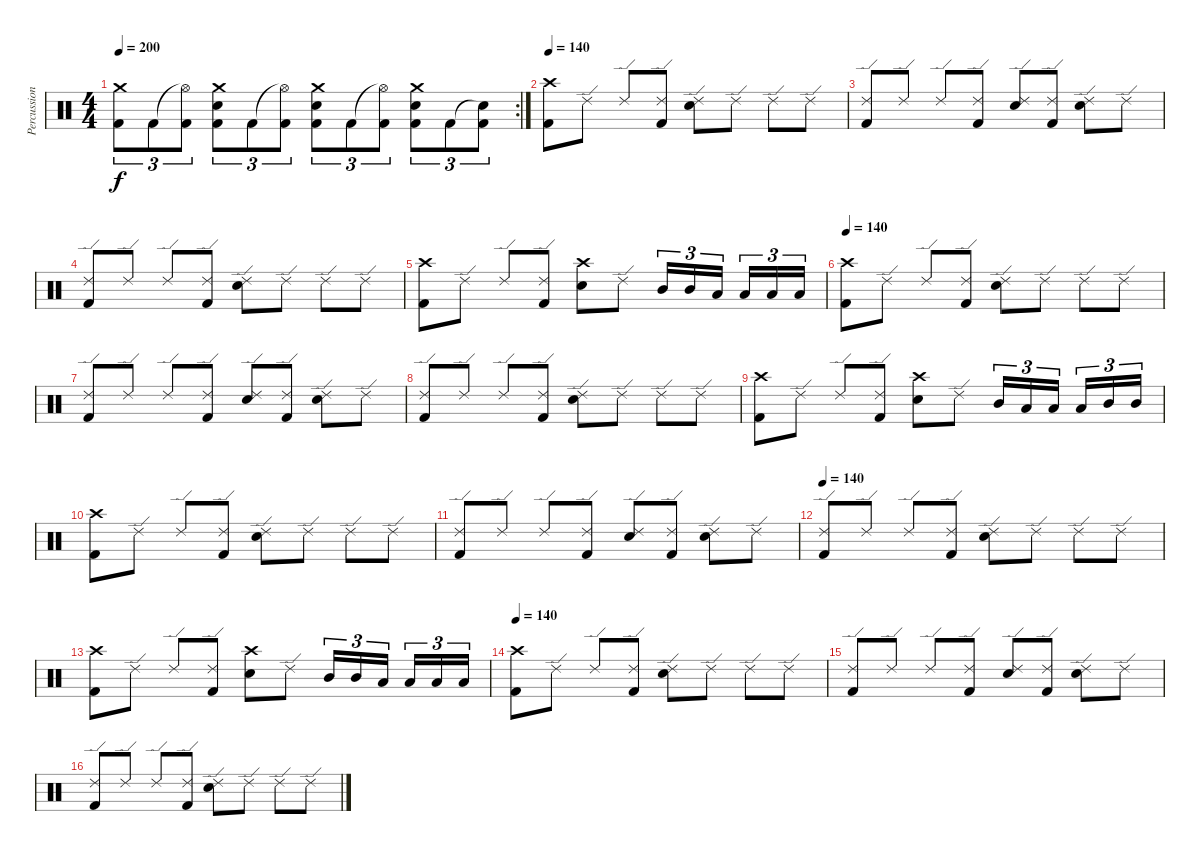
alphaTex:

\track ("Percussion" "Percussion") {instrument percussion}
\staff {score}
\articulation defaults
\rc 2
\ts (4 4)
\tempo 200
\clef neutral
\ks c
("Crash medium (hit)" "Kick (hit) 2").8{tu (3 2) dy f} "Kick (hit) 2".8{tu (3 2)} ("Hi-Hat (open)"{t} "Kick (hit) 2").8{tu (3 2)} ("Crash medium (hit)" "Electric Snare (hit)" "Kick (hit) 2").8{tu (3 2)} "Kick (hit) 2".8{tu (3 2)} ("Hi-Hat (open)"{t} "Kick (hit) 2").8{tu (3 2)} ("Crash medium (hit)" "Electric Snare (hit)" "Kick (hit) 2").8{tu (3 2)} "Kick (hit) 2".8{tu (3 2)} ("Hi-Hat (open)"{t} "Kick (hit) 2").8{tu (3 2)} ("Crash medium (hit)" "Electric Snare (hit)" "Kick (hit) 2").8{tu (3 2)} "Kick (hit) 2".8{tu (3 2)} ("Snare (hit)"{t} "Kick (hit) 2").8{tu (3 2)} |
\tempo 140
("Crash high (hit)" "Kick (hit) 2").8 "Ride (edge) 2".8 "Ride (edge) 2".8 ("Ride (edge) 2" "Kick (hit) 2").8 ("Ride (edge) 2" "Electric Snare (hit)").8 "Ride (edge) 2".8 "Ride (edge) 2".8 "Ride (edge) 2".8 |
("Ride (edge) 2" "Kick (hit) 2").8 "Ride (edge) 2".8 "Ride (edge) 2".8 ("Ride (edge) 2" "Kick (hit) 2").8 ("Ride (edge) 2" "Electric Snare (hit)").8 ("Ride (edge) 2" "Kick (hit) 2").8 ("Ride (edge) 2" "Electric Snare (hit)").8 "Ride (edge) 2".8 |
("Ride (edge) 2" "Kick (hit) 2").8 "Ride (edge) 2".8 "Ride (edge) 2".8 ("Ride (edge) 2" "Kick (hit) 2").8 ("Ride (edge) 2" "Electric Snare (hit)").8 "Ride (edge) 2".8 "Ride (edge) 2".8 "Ride (edge) 2".8 |
("Crash high (hit)" "Kick (hit) 2").8 "Ride (edge) 2".8 "Ride (edge) 2".8 ("Ride (edge) 2" "Kick (hit) 2").8 ("Crash high (hit)" "Electric Snare (hit)").8 "Ride (edge) 2".8 "Mid Tom (hit)".16{tu (3 2)} "Mid Tom (hit)".16{tu (3 2)} "Low Tom (hit)".16{tu (3 2)} "Low Tom (hit)".16{tu (3 2)} "Low Floor Tom (hit)".16{tu (3 2)} "Low Floor Tom (hit)".16{tu (3 2)} |
\tempo 140
("Crash high (hit)" "Kick (hit) 2").8 "Ride (edge) 2".8 "Ride (edge) 2".8 ("Ride (edge) 2" "Kick (hit) 2").8 ("Ride (edge) 2" "Electric Snare (hit)").8 "Ride (edge) 2".8 "Ride (edge) 2".8 "Ride (edge) 2".8 |
("Ride (edge) 2" "Kick (hit) 2").8 "Ride (edge) 2".8 "Ride (edge) 2".8 ("Ride (edge) 2" "Kick (hit) 2").8 ("Ride (edge) 2" "Electric Snare (hit)").8 ("Ride (edge) 2" "Kick (hit) 2").8 ("Ride (edge) 2" "Electric Snare (hit)").8 "Ride (edge) 2".8 |
("Ride (edge) 2" "Kick (hit) 2").8 "Ride (edge) 2".8 "Ride (edge) 2".8 ("Ride (edge) 2" "Kick (hit) 2").8 ("Ride (edge) 2" "Electric Snare (hit)").8 "Ride (edge) 2".8 "Ride (edge) 2".8 "Ride (edge) 2".8 |
("Crash high (hit)" "Kick (hit) 2").8 "Ride (edge) 2".8 "Ride (edge) 2".8 ("Ride (edge) 2" "Kick (hit) 2").8 ("Crash high (hit)" "Electric Snare (hit)").8 "Ride (edge) 2".8 "Mid Tom (hit)".16{tu (3 2)} "Low Floor Tom (hit)".16{tu (3 2)} "Low Tom (hit)".16{tu (3 2)} "Low Floor Tom (hit)".16{tu (3 2)} "Mid Tom (hit)".16{tu (3 2)} "Mid Tom (hit)".16{tu (3 2)} |
("Crash high (hit)" "Kick (hit) 2").8 "Ride (edge) 2".8 "Ride (edge) 2".8 ("Ride (edge) 2" "Kick (hit) 2").8 ("Ride (edge) 2" "Electric Snare (hit)").8 "Ride (edge) 2".8 "Ride (edge) 2".8 "Ride (edge) 2".8 |
("Ride (edge) 2" "Kick (hit) 2").8 "Ride (edge) 2".8 "Ride (edge) 2".8 ("Ride (edge) 2" "Kick (hit) 2").8 ("Ride (edge) 2" "Electric Snare (hit)").8 ("Ride (edge) 2" "Kick (hit) 2").8 ("Ride (edge) 2" "Electric Snare (hit)").8 "Ride (edge) 2".8 |
\tempo 140
("Ride (edge) 2" "Kick (hit) 2").8 "Ride (edge) 2".8 "Ride (edge) 2".8 ("Ride (edge) 2" "Kick (hit) 2").8 ("Ride (edge) 2" "Electric Snare (hit)").8 "Ride (edge) 2".8 "Ride (edge) 2".8 "Ride (edge) 2".8 |
("Crash high (hit)" "Kick (hit) 2").8 "Ride (edge) 2".8 "Ride (edge) 2".8 ("Ride (edge) 2" "Kick (hit) 2").8 ("Crash high (hit)" "Electric Snare (hit)").8 "Ride (edge) 2".8 "Mid Tom (hit)".16{tu (3 2)} "Mid Tom (hit)".16{tu (3 2)} "Low Tom (hit)".16{tu (3 2)} "Low Tom (hit)".16{tu (3 2)} "Low Floor Tom (hit)".16{tu (3 2)} "Low Floor Tom (hit)".16{tu (3 2)} |
\tempo 140
("Crash high (hit)" "Kick (hit) 2").8 "Ride (edge) 2".8 "Ride (edge) 2".8 ("Ride (edge) 2" "Kick (hit) 2").8 ("Ride (edge) 2" "Electric Snare (hit)").8 "Ride (edge) 2".8 "Ride (edge) 2".8 "Ride (edge) 2".8 |
("Ride (edge) 2" "Kick (hit) 2").8 "Ride (edge) 2".8 "Ride (edge) 2".8 ("Ride (edge) 2" "Kick (hit) 2").8 ("Ride (edge) 2" "Electric Snare (hit)").8 ("Ride (edge) 2" "Kick (hit) 2").8 ("Ride (edge) 2" "Electric Snare (hit)").8 "Ride (edge) 2".8 |
("Ride (edge) 2" "Kick (hit) 2").8 "Ride (edge) 2".8 "Ride (edge) 2".8 ("Ride (edge) 2" "Kick (hit) 2").8 ("Ride (edge) 2" "Electric Snare (hit)").8 "Ride (edge) 2".8 "Ride (edge) 2".8 "Ride (edge) 2".8
